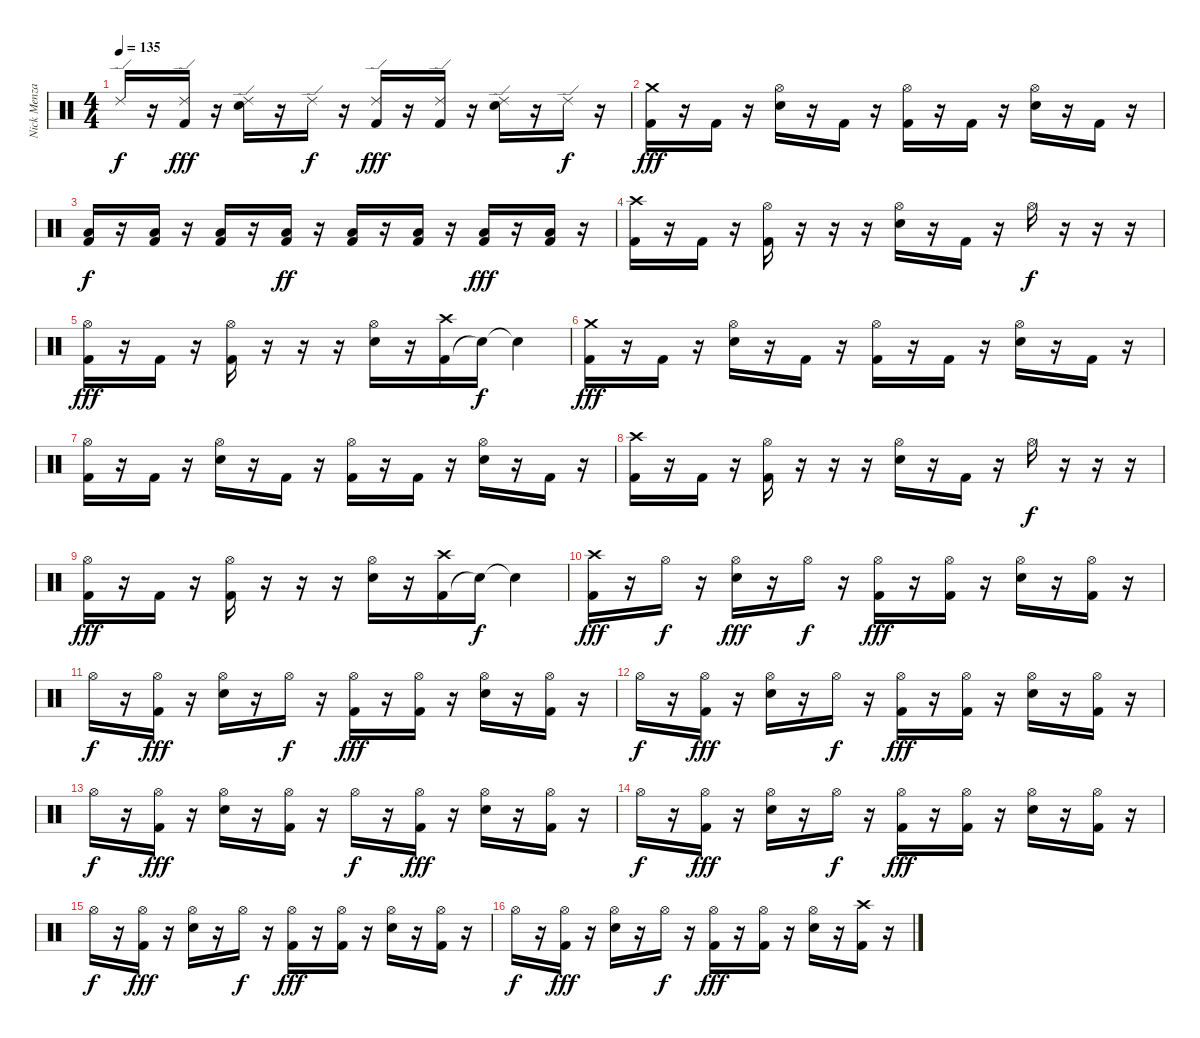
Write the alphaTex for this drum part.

\track ("Nick Menza" "Nick Menza") {instrument percussion}
\staff {score}
\articulation defaults
\ts (4 4)
\tempo 135
\clef neutral
\ks c "Ride (edge) 2".16{dy f}
r.16 ("Kick (hit) 2" "Ride (edge) 2").16{dy fff} r.16 ("Electric Snare (hit)" "Ride (edge) 2").16 r.16 "Ride (edge) 2".16{dy f} r.16 ("Kick (hit) 2" "Ride (edge) 2").16{dy fff} r.16 ("Kick (hit) 2" "Ride (edge) 2").16 r.16 ("Electric Snare (hit)" "Ride (edge) 2").16 r.16 "Ride (edge) 2".16{dy f} r.16 |
("Kick (hit) 2" "Crash medium (hit)").16{dy fff} r.16 "Kick (hit) 2".16 r.16 ("Electric Snare (hit)" "Hi-Hat (open)").16 r.16 "Kick (hit) 2".16 r.16 ("Kick (hit) 2" "Hi-Hat (open)").16 r.16 "Kick (hit) 2".16 r.16 ("Electric Snare (hit)" "Hi-Hat (open)").16 r.16 "Kick (hit) 2".16 r.16 |
("Kick (hit) 2" "Low Floor Tom (hit)").16{dy f} r.16 ("Kick (hit) 2" "Low Floor Tom (hit)").16 r.16 ("Kick (hit) 2" "Low Floor Tom (hit)").16 r.16 ("Kick (hit) 2" "Low Floor Tom (hit)").16{dy ff} r.16 ("Kick (hit) 2" "Low Floor Tom (hit)").16 r.16 ("Kick (hit) 2" "Low Floor Tom (hit)").16 r.16 ("Kick (hit) 2" "Low Floor Tom (hit)").16{dy fff} r.16 ("Kick (hit) 2" "Low Floor Tom (hit)").16 r.16 |
("Kick (hit) 2" "Crash high (hit)").16 r.16 "Kick (hit) 2".16 r.16 ("Kick (hit) 2" "Hi-Hat (open)").16 r.16 r.16 r.16 ("Electric Snare (hit)" "Hi-Hat (open)").16 r.16 "Kick (hit) 2".16 r.16 "Hi-Hat (open)".16{dy f} r.16 r.16 r.16 |
("Kick (hit) 2" "Hi-Hat (open)").16{dy fff} r.16 "Kick (hit) 2".16 r.16 ("Kick (hit) 2" "Hi-Hat (open)").16 r.16 r.16 r.16 ("Electric Snare (hit)" "Hi-Hat (open)").16 r.16 ("Kick (hit) 2" "Crash high (hit)").16 "Snare (hit)"{t}.16{dy f} "Snare (hit)"{t}.4 |
("Kick (hit) 2" "Crash medium (hit)").16{dy fff} r.16 "Kick (hit) 2".16 r.16 ("Electric Snare (hit)" "Hi-Hat (open)").16 r.16 "Kick (hit) 2".16 r.16 ("Kick (hit) 2" "Hi-Hat (open)").16 r.16 "Kick (hit) 2".16 r.16 ("Electric Snare (hit)" "Hi-Hat (open)").16 r.16 "Kick (hit) 2".16 r.16 |
("Kick (hit) 2" "Hi-Hat (open)").16 r.16 "Kick (hit) 2".16 r.16 ("Electric Snare (hit)" "Hi-Hat (open)").16 r.16 "Kick (hit) 2".16 r.16 ("Kick (hit) 2" "Hi-Hat (open)").16 r.16 "Kick (hit) 2".16 r.16 ("Electric Snare (hit)" "Hi-Hat (open)").16 r.16 "Kick (hit) 2".16 r.16 |
("Kick (hit) 2" "Crash high (hit)").16 r.16 "Kick (hit) 2".16 r.16 ("Kick (hit) 2" "Hi-Hat (open)").16 r.16 r.16 r.16 ("Electric Snare (hit)" "Hi-Hat (open)").16 r.16 "Kick (hit) 2".16 r.16 "Hi-Hat (open)".16{dy f} r.16 r.16 r.16 |
("Kick (hit) 2" "Hi-Hat (open)").16{dy fff} r.16 "Kick (hit) 2".16 r.16 ("Kick (hit) 2" "Hi-Hat (open)").16 r.16 r.16 r.16 ("Electric Snare (hit)" "Hi-Hat (open)").16 r.16 ("Kick (hit) 2" "Crash high (hit)").16 "Snare (hit)"{t}.16{dy f} "Snare (hit)"{t}.4 |
("Kick (hit) 2" "Crash high (hit)").16{dy fff} r.16 "Hi-Hat (open)".16{dy f} r.16 ("Electric Snare (hit)" "Hi-Hat (open)").16{dy fff} r.16 "Hi-Hat (open)".16{dy f} r.16 ("Kick (hit) 2" "Hi-Hat (open)").16{dy fff} r.16 ("Kick (hit) 2" "Hi-Hat (open)").16 r.16 ("Electric Snare (hit)" "Hi-Hat (open)").16 r.16 ("Kick (hit) 2" "Hi-Hat (open)").16 r.16 |
"Hi-Hat (open)".16{dy f} r.16 ("Kick (hit) 2" "Hi-Hat (open)").16{dy fff} r.16 ("Electric Snare (hit)" "Hi-Hat (open)").16 r.16 "Hi-Hat (open)".16{dy f} r.16 ("Kick (hit) 2" "Hi-Hat (open)").16{dy fff} r.16 ("Kick (hit) 2" "Hi-Hat (open)").16 r.16 ("Electric Snare (hit)" "Hi-Hat (open)").16 r.16 ("Kick (hit) 2" "Hi-Hat (open)").16 r.16 |
"Hi-Hat (open)".16{dy f} r.16 ("Kick (hit) 2" "Hi-Hat (open)").16{dy fff} r.16 ("Electric Snare (hit)" "Hi-Hat (open)").16 r.16 "Hi-Hat (open)".16{dy f} r.16 ("Kick (hit) 2" "Hi-Hat (open)").16{dy fff} r.16 ("Kick (hit) 2" "Hi-Hat (open)").16 r.16 ("Electric Snare (hit)" "Hi-Hat (open)").16 r.16 ("Kick (hit) 2" "Hi-Hat (open)").16 r.16 |
"Hi-Hat (open)".16{dy f} r.16 ("Kick (hit) 2" "Hi-Hat (open)").16{dy fff} r.16 ("Electric Snare (hit)" "Hi-Hat (open)").16 r.16 ("Kick (hit) 2" "Hi-Hat (open)").16 r.16 "Hi-Hat (open)".16{dy f} r.16 ("Kick (hit) 2" "Hi-Hat (open)").16{dy fff} r.16 ("Electric Snare (hit)" "Hi-Hat (open)").16 r.16 ("Kick (hit) 2" "Hi-Hat (open)").16 r.16 |
"Hi-Hat (open)".16{dy f} r.16 ("Kick (hit) 2" "Hi-Hat (open)").16{dy fff} r.16 ("Electric Snare (hit)" "Hi-Hat (open)").16 r.16 "Hi-Hat (open)".16{dy f} r.16 ("Kick (hit) 2" "Hi-Hat (open)").16{dy fff} r.16 ("Kick (hit) 2" "Hi-Hat (open)").16 r.16 ("Electric Snare (hit)" "Hi-Hat (open)").16 r.16 ("Kick (hit) 2" "Hi-Hat (open)").16 r.16 |
"Hi-Hat (open)".16{dy f} r.16 ("Kick (hit) 2" "Hi-Hat (open)").16{dy fff} r.16 ("Electric Snare (hit)" "Hi-Hat (open)").16 r.16 "Hi-Hat (open)".16{dy f} r.16 ("Kick (hit) 2" "Hi-Hat (open)").16{dy fff} r.16 ("Kick (hit) 2" "Hi-Hat (open)").16 r.16 ("Electric Snare (hit)" "Hi-Hat (open)").16 r.16 ("Kick (hit) 2" "Hi-Hat (open)").16 r.16 |
"Hi-Hat (open)".16{dy f} r.16 ("Kick (hit) 2" "Hi-Hat (open)").16{dy fff} r.16 ("Electric Snare (hit)" "Hi-Hat (open)").16 r.16 "Hi-Hat (open)".16{dy f} r.16 ("Kick (hit) 2" "Hi-Hat (open)").16{dy fff} r.16 ("Kick (hit) 2" "Hi-Hat (open)").16 r.16 ("Electric Snare (hit)" "Hi-Hat (open)").16 r.16 ("Kick (hit) 2" "Crash high (hit)").16 r.16
